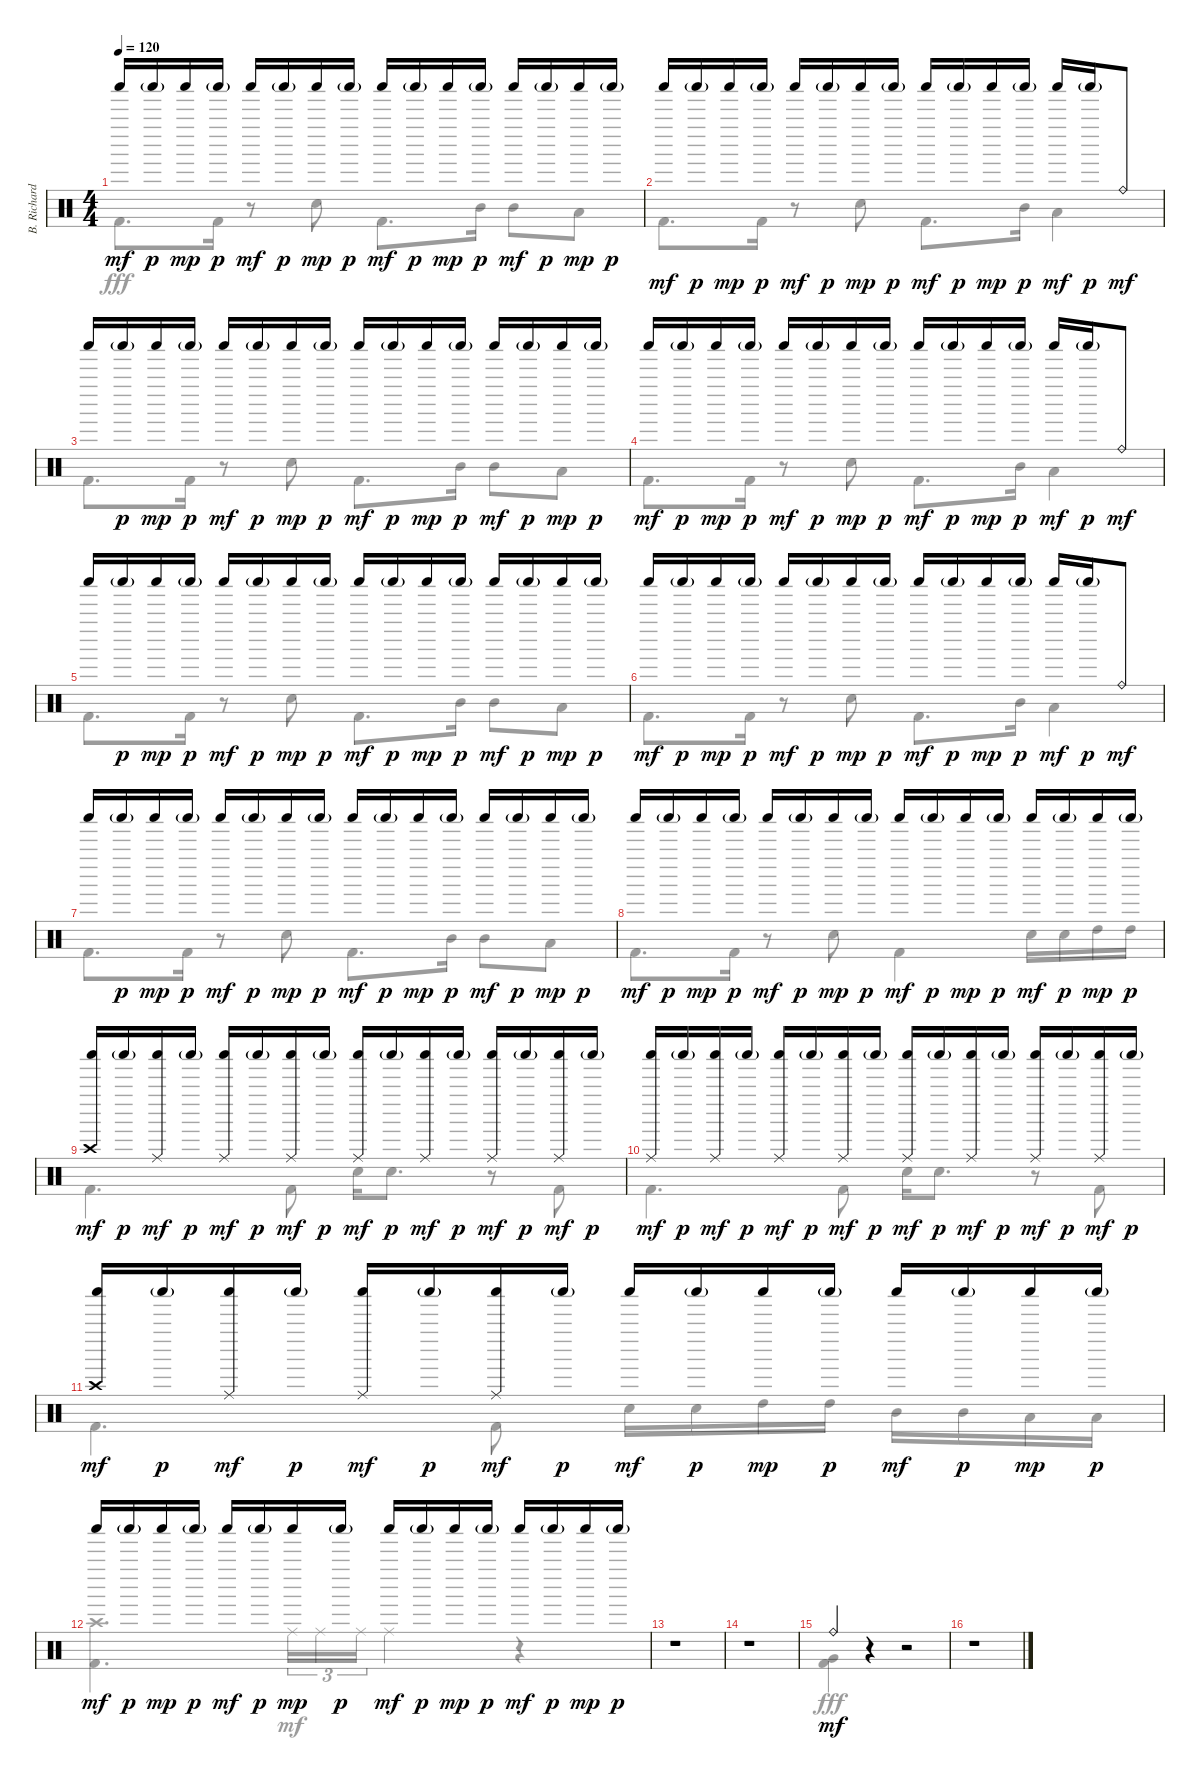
\track ("B. Richardson Drums" "B. Richard") {instrument percussion}
\staff {score}
\articulation defaults
\voice
\ts (4 4)
\tempo 120
\clef neutral
\ks c "Shaker (hit)".16{dy mf} "Shaker (hit)"{g}.16{dy p} "Shaker (hit)".16{dy mp} "Shaker (hit)"{g}.16{dy p} "Shaker (hit)".16{dy mf} "Shaker (hit)"{g}.16{dy p} "Shaker (hit)".16{dy mp} "Shaker (hit)"{g}.16{dy p} "Shaker (hit)".16{dy mf} "Shaker (hit)"{g}.16{dy p} "Shaker (hit)".16{dy mp} "Shaker (hit)"{g}.16{dy p} "Shaker (hit)".16{dy mf} "Shaker (hit)"{g}.16{dy p} "Shaker (hit)".16{dy mp} "Shaker (hit)"{g}.16{dy p}
|
"Shaker (hit)".16{dy mf} "Shaker (hit)"{g}.16{dy p} "Shaker (hit)".16{dy mp} "Shaker (hit)"{g}.16{dy p} "Shaker (hit)".16{dy mf} "Shaker (hit)"{g}.16{dy p} "Shaker (hit)".16{dy mp} "Shaker (hit)"{g}.16{dy p} "Shaker (hit)".16{dy mf} "Shaker (hit)"{g}.16{dy p} "Shaker (hit)".16{dy mp} "Shaker (hit)"{g}.16{dy p} "Shaker (hit)".16{dy mf} "Shaker (hit)"{g}.16{dy p} "Ride (bell)".8{dy mf} |
"Shaker (hit)".16 "Shaker (hit)"{g}.16{dy p} "Shaker (hit)".16{dy mp} "Shaker (hit)"{g}.16{dy p} "Shaker (hit)".16{dy mf} "Shaker (hit)"{g}.16{dy p} "Shaker (hit)".16{dy mp} "Shaker (hit)"{g}.16{dy p} "Shaker (hit)".16{dy mf} "Shaker (hit)"{g}.16{dy p} "Shaker (hit)".16{dy mp} "Shaker (hit)"{g}.16{dy p} "Shaker (hit)".16{dy mf} "Shaker (hit)"{g}.16{dy p} "Shaker (hit)".16{dy mp} "Shaker (hit)"{g}.16{dy p} |
"Shaker (hit)".16{dy mf} "Shaker (hit)"{g}.16{dy p} "Shaker (hit)".16{dy mp} "Shaker (hit)"{g}.16{dy p} "Shaker (hit)".16{dy mf} "Shaker (hit)"{g}.16{dy p} "Shaker (hit)".16{dy mp} "Shaker (hit)"{g}.16{dy p} "Shaker (hit)".16{dy mf} "Shaker (hit)"{g}.16{dy p} "Shaker (hit)".16{dy mp} "Shaker (hit)"{g}.16{dy p} "Shaker (hit)".16{dy mf} "Shaker (hit)"{g}.16{dy p} "Ride (bell)".8{dy mf} |
"Shaker (hit)".16 "Shaker (hit)"{g}.16{dy p} "Shaker (hit)".16{dy mp} "Shaker (hit)"{g}.16{dy p} "Shaker (hit)".16{dy mf} "Shaker (hit)"{g}.16{dy p} "Shaker (hit)".16{dy mp} "Shaker (hit)"{g}.16{dy p} "Shaker (hit)".16{dy mf} "Shaker (hit)"{g}.16{dy p} "Shaker (hit)".16{dy mp} "Shaker (hit)"{g}.16{dy p} "Shaker (hit)".16{dy mf} "Shaker (hit)"{g}.16{dy p} "Shaker (hit)".16{dy mp} "Shaker (hit)"{g}.16{dy p} |
"Shaker (hit)".16{dy mf} "Shaker (hit)"{g}.16{dy p} "Shaker (hit)".16{dy mp} "Shaker (hit)"{g}.16{dy p} "Shaker (hit)".16{dy mf} "Shaker (hit)"{g}.16{dy p} "Shaker (hit)".16{dy mp} "Shaker (hit)"{g}.16{dy p} "Shaker (hit)".16{dy mf} "Shaker (hit)"{g}.16{dy p} "Shaker (hit)".16{dy mp} "Shaker (hit)"{g}.16{dy p} "Shaker (hit)".16{dy mf} "Shaker (hit)"{g}.16{dy p} "Ride (bell)".8{dy mf} |
"Shaker (hit)".16 "Shaker (hit)"{g}.16{dy p} "Shaker (hit)".16{dy mp} "Shaker (hit)"{g}.16{dy p} "Shaker (hit)".16{dy mf} "Shaker (hit)"{g}.16{dy p} "Shaker (hit)".16{dy mp} "Shaker (hit)"{g}.16{dy p} "Shaker (hit)".16{dy mf} "Shaker (hit)"{g}.16{dy p} "Shaker (hit)".16{dy mp} "Shaker (hit)"{g}.16{dy p} "Shaker (hit)".16{dy mf} "Shaker (hit)"{g}.16{dy p} "Shaker (hit)".16{dy mp} "Shaker (hit)"{g}.16{dy p} |
"Shaker (hit)".16{dy mf} "Shaker (hit)"{g}.16{dy p} "Shaker (hit)".16{dy mp} "Shaker (hit)"{g}.16{dy p} "Shaker (hit)".16{dy mf} "Shaker (hit)"{g}.16{dy p} "Shaker (hit)".16{dy mp} "Shaker (hit)"{g}.16{dy p} "Shaker (hit)".16{dy mf} "Shaker (hit)"{g}.16{dy p} "Shaker (hit)".16{dy mp} "Shaker (hit)"{g}.16{dy p} "Shaker (hit)".16{dy mf} "Shaker (hit)"{g}.16{dy p} "Shaker (hit)".16{dy mp} "Shaker (hit)"{g}.16{dy p} |
("Shaker (hit)" "Crash high (hit)").16{dy mf} "Shaker (hit)"{g}.16{dy p} ("Shaker (hit)" "Ride (middle)").16{dy mf} "Shaker (hit)"{g}.16{dy p} ("Shaker (hit)" "Ride (middle)").16{dy mf} "Shaker (hit)"{g}.16{dy p} ("Shaker (hit)" "Ride (middle)").16{dy mf} "Shaker (hit)"{g}.16{dy p} ("Shaker (hit)" "Ride (middle)").16{dy mf} "Shaker (hit)"{g}.16{dy p} ("Shaker (hit)" "Ride (middle)").16{dy mf} "Shaker (hit)"{g}.16{dy p} ("Shaker (hit)" "Ride (middle)").16{dy mf} "Shaker (hit)"{g}.16{dy p} ("Shaker (hit)" "Ride (middle)").16{dy mf} "Shaker (hit)"{g}.16{dy p} |
("Shaker (hit)" "Ride (middle)").16{dy mf} "Shaker (hit)"{g}.16{dy p} ("Shaker (hit)" "Ride (middle)").16{dy mf} "Shaker (hit)"{g}.16{dy p} ("Shaker (hit)" "Ride (middle)").16{dy mf} "Shaker (hit)"{g}.16{dy p} ("Shaker (hit)" "Ride (middle)").16{dy mf} "Shaker (hit)"{g}.16{dy p} ("Shaker (hit)" "Ride (middle)").16{dy mf} "Shaker (hit)"{g}.16{dy p} ("Shaker (hit)" "Ride (middle)").16{dy mf} "Shaker (hit)"{g}.16{dy p} ("Shaker (hit)" "Ride (middle)").16{dy mf} "Shaker (hit)"{g}.16{dy p} ("Shaker (hit)" "Ride (middle)").16{dy mf} "Shaker (hit)"{g}.16{dy p} |
("Shaker (hit)" "Crash high (hit)").16{dy mf} "Shaker (hit)"{g}.16{dy p} ("Shaker (hit)" "Ride (middle)").16{dy mf} "Shaker (hit)"{g}.16{dy p} ("Shaker (hit)" "Ride (middle)").16{dy mf} "Shaker (hit)"{g}.16{dy p} ("Shaker (hit)" "Ride (middle)").16{dy mf} "Shaker (hit)"{g}.16{dy p} "Shaker (hit)".16{dy mf} "Shaker (hit)"{g}.16{dy p} "Shaker (hit)".16{dy mp} "Shaker (hit)"{g}.16{dy p} "Shaker (hit)".16{dy mf} "Shaker (hit)"{g}.16{dy p} "Shaker (hit)".16{dy mp} "Shaker (hit)"{g}.16{dy p} |
"Shaker (hit)".16{dy mf} "Shaker (hit)"{g}.16{dy p} "Shaker (hit)".16{dy mp} "Shaker (hit)"{g}.16{dy p} "Shaker (hit)".16{dy mf} "Shaker (hit)"{g}.16{dy p} "Shaker (hit)".16{dy mp} "Shaker (hit)"{g}.16{dy p} "Shaker (hit)".16{dy mf} "Shaker (hit)"{g}.16{dy p} "Shaker (hit)".16{dy mp} "Shaker (hit)"{g}.16{dy p} "Shaker (hit)".16{dy mf} "Shaker (hit)"{g}.16{dy p} "Shaker (hit)".16{dy mp} "Shaker (hit)"{g}.16{dy p} |
r.1 |
r.1 |
"Ride (bell)".4{dy mf} r.4 r.2 |
r.1{volume 0}
\voice
\clef neutral
\ottava regular
\simile none
\ks c "Kick (hit) 2".8{d dy fff} "Kick (hit) 2".16
r.8 "Electric Snare (hit)".8 "Kick (hit) 2".8{d} "Mid Tom (hit)".16 "Mid Tom (hit)".8 "Low Tom (hit)".8 |
"Kick (hit) 2".8{d} "Kick (hit) 2".16 r.8 "Electric Snare (hit)".8 "Kick (hit) 2".8{d} "Mid Tom (hit)".16 "Low Tom (hit)".4 |
"Kick (hit) 2".8{d} "Kick (hit) 2".16 r.8 "Electric Snare (hit)".8 "Kick (hit) 2".8{d} "Mid Tom (hit)".16 "Mid Tom (hit)".8 "Low Tom (hit)".8 |
"Kick (hit) 2".8{d} "Kick (hit) 2".16 r.8 "Electric Snare (hit)".8 "Kick (hit) 2".8{d} "Mid Tom (hit)".16 "Low Tom (hit)".4 |
"Kick (hit) 2".8{d} "Kick (hit) 2".16 r.8 "Electric Snare (hit)".8 "Kick (hit) 2".8{d} "Mid Tom (hit)".16 "Mid Tom (hit)".8 "Low Tom (hit)".8 |
"Kick (hit) 2".8{d} "Kick (hit) 2".16 r.8 "Electric Snare (hit)".8 "Kick (hit) 2".8{d} "Mid Tom (hit)".16 "Low Tom (hit)".4 |
"Kick (hit) 2".8{d} "Kick (hit) 2".16 r.8 "Electric Snare (hit)".8 "Kick (hit) 2".8{d} "Mid Tom (hit)".16 "Mid Tom (hit)".8 "Low Tom (hit)".8 |
"Kick (hit) 2".8{d} "Kick (hit) 2".16 r.8 "Electric Snare (hit)".8 "Kick (hit) 2".4 "Electric Snare (hit)".16 "Electric Snare (hit)".16 "High Tom (hit)".16 "High Tom (hit)".16 |
"Kick (hit) 2".4{d} "Kick (hit) 2".8 "Electric Snare (hit)".16 "Electric Snare (hit)".8{d} r.8 "Kick (hit) 2".8 |
"Kick (hit) 2".4{d} "Kick (hit) 2".8 "Electric Snare (hit)".16 "Electric Snare (hit)".8{d} r.8 "Kick (hit) 2".8 |
"Kick (hit) 2".4{d} "Kick (hit) 2".8 "Electric Snare (hit)".16 "Electric Snare (hit)".16 "High Tom (hit)".16 "High Tom (hit)".16 "Mid Tom (hit)".16 "Mid Tom (hit)".16 "Low Tom (hit)".16 "Low Tom (hit)".16 |
("Crash high (hit)" "Kick (hit) 2").4{d} "Ride (middle)".16{tu (3 2) dy mf} "Ride (middle)".16{tu (3 2)} "Ride (middle)".16{tu (3 2)} "Ride (middle)".4 r.4 |
r.1 |
r.1 |
("Very Low Tom (hit)" "Kick (hit) 2").4{dy fff} r.4 r.2 |
r.1
